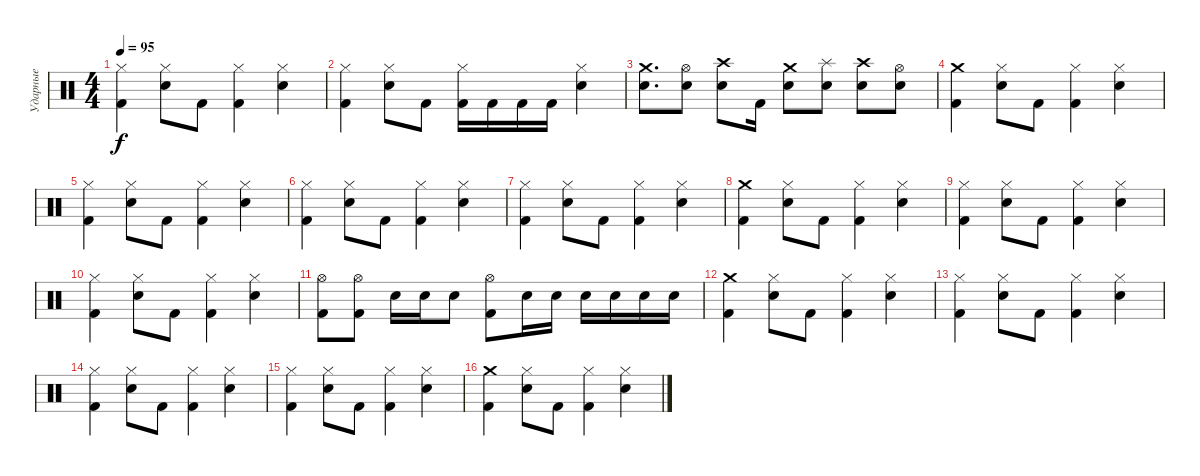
\track ("Ударные" "Ударные") {instrument percussion}
\staff {score}
\articulation defaults
\ts (4 4)
\tempo 95
\clef neutral
\ks c
("Hi-Hat (closed)" "Kick (hit) 2").4{dy f} ("Hi-Hat (closed)" "Snare (hit) 2").8 "Kick (hit) 2".8 ("Hi-Hat (closed)" "Kick (hit) 2").4 ("Hi-Hat (closed)" "Snare (hit) 2").4 |
("Hi-Hat (closed)" "Kick (hit) 2").4 ("Hi-Hat (closed)" "Snare (hit) 2").8 "Kick (hit) 2".8 ("Hi-Hat (closed)" "Kick (hit) 2").16 "Kick (hit) 2".16 "Kick (hit) 2".16 "Kick (hit) 2".16 ("Hi-Hat (closed)" "Snare (hit) 2").4 |
("Crash medium (hit)" "Snare (hit) 2").8{d} ("Hi-Hat (open)" "Snare (hit) 2").8 ("Crash high (hit)" "Snare (hit) 2").8 "Kick (hit) 2".16 ("Crash medium (hit)" "Snare (hit) 2").8 ("Splash (hit)" "Snare (hit) 2").8 ("Crash high (hit)" "Snare (hit) 2").8 ("Hi-Hat (open)" "Snare (hit) 2").8 |
("Crash medium (hit)" "Kick (hit) 2").4 ("Hi-Hat (closed)" "Snare (hit) 2").8 "Kick (hit) 2".8 ("Hi-Hat (closed)" "Kick (hit) 2").4 ("Hi-Hat (closed)" "Snare (hit) 2").4 |
("Hi-Hat (closed)" "Kick (hit) 2").4 ("Hi-Hat (closed)" "Snare (hit) 2").8 "Kick (hit) 2".8 ("Hi-Hat (closed)" "Kick (hit) 2").4 ("Hi-Hat (closed)" "Snare (hit) 2").4 |
("Hi-Hat (closed)" "Kick (hit) 2").4 ("Hi-Hat (closed)" "Snare (hit) 2").8 "Kick (hit) 2".8 ("Hi-Hat (closed)" "Kick (hit) 2").4 ("Hi-Hat (closed)" "Snare (hit) 2").4 |
("Hi-Hat (closed)" "Kick (hit) 2").4 ("Hi-Hat (closed)" "Snare (hit) 2").8 "Kick (hit) 2".8 ("Hi-Hat (closed)" "Kick (hit) 2").4 ("Hi-Hat (closed)" "Snare (hit) 2").4 |
("Crash medium (hit)" "Kick (hit) 2").4 ("Hi-Hat (closed)" "Snare (hit) 2").8 "Kick (hit) 2".8 ("Hi-Hat (closed)" "Kick (hit) 2").4 ("Hi-Hat (closed)" "Snare (hit) 2").4 |
("Hi-Hat (closed)" "Kick (hit) 2").4 ("Hi-Hat (closed)" "Snare (hit) 2").8 "Kick (hit) 2".8 ("Hi-Hat (closed)" "Kick (hit) 2").4 ("Hi-Hat (closed)" "Snare (hit) 2").4 |
("Hi-Hat (closed)" "Kick (hit) 2").4 ("Hi-Hat (closed)" "Snare (hit) 2").8 "Kick (hit) 2".8 ("Hi-Hat (closed)" "Kick (hit) 2").4 ("Hi-Hat (closed)" "Snare (hit) 2").4 |
("Hi-Hat (open)" "Kick (hit) 2").8 ("Hi-Hat (open)" "Kick (hit) 2").8 "Snare (hit) 2".16 "Snare (hit) 2".16 "Snare (hit) 2".8 ("Hi-Hat (open)" "Kick (hit) 2").8 "Snare (hit) 2".16 "Snare (hit) 2".16 "Snare (hit) 2".16 "Snare (hit) 2".16 "Snare (hit) 2".16 "Snare (hit) 2".16 |
("Crash medium (hit)" "Kick (hit) 2").4 ("Hi-Hat (closed)" "Snare (hit) 2").8 "Kick (hit) 2".8 ("Hi-Hat (closed)" "Kick (hit) 2").4 ("Hi-Hat (closed)" "Snare (hit) 2").4 |
("Hi-Hat (closed)" "Kick (hit) 2").4 ("Hi-Hat (closed)" "Snare (hit) 2").8 "Kick (hit) 2".8 ("Hi-Hat (closed)" "Kick (hit) 2").4 ("Hi-Hat (closed)" "Snare (hit) 2").4 |
("Hi-Hat (closed)" "Kick (hit) 2").4 ("Hi-Hat (closed)" "Snare (hit) 2").8 "Kick (hit) 2".8 ("Hi-Hat (closed)" "Kick (hit) 2").4 ("Hi-Hat (closed)" "Snare (hit) 2").4 |
("Hi-Hat (closed)" "Kick (hit) 2").4 ("Hi-Hat (closed)" "Snare (hit) 2").8 "Kick (hit) 2".8 ("Hi-Hat (closed)" "Kick (hit) 2").4 ("Hi-Hat (closed)" "Snare (hit) 2").4 |
("Crash medium (hit)" "Kick (hit) 2").4 ("Hi-Hat (closed)" "Snare (hit) 2").8 "Kick (hit) 2".8 ("Hi-Hat (closed)" "Kick (hit) 2").4 ("Hi-Hat (closed)" "Snare (hit) 2").4
